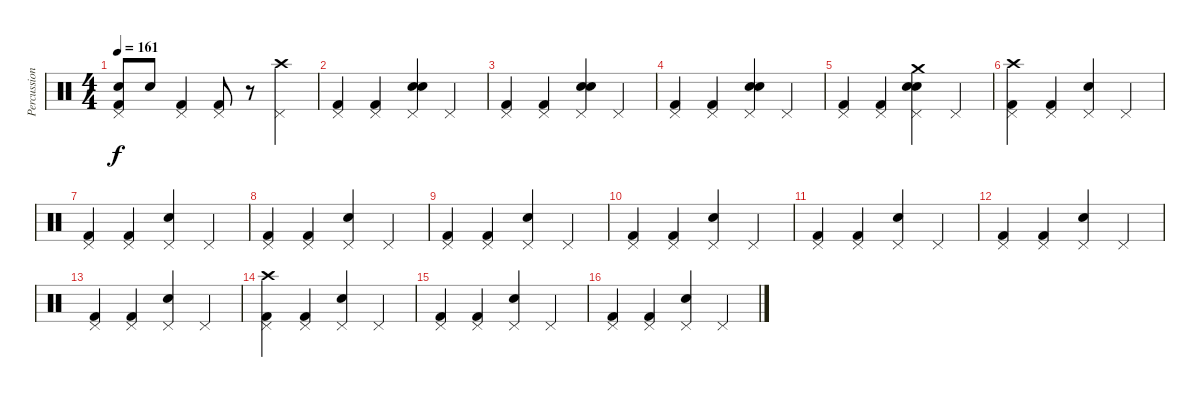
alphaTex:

\track ("Percussion" "Percussion") {instrument percussion}
\staff {score}
\articulation defaults
\ts (4 4)
\tempo 161
\clef neutral
\ks c
("Pedal Hi-Hat (hit)" "Electric Snare (hit)" "Kick (hit) 2").8{dy f} "Electric Snare (hit)".8 ("Pedal Hi-Hat (hit)" "Kick (hit) 2").4 ("Pedal Hi-Hat (hit)" "Kick (hit) 2").8 r.8 ("Pedal Hi-Hat (hit)" "Crash high (hit)").4 |
("Pedal Hi-Hat (hit)" "Kick (hit) 2").4 ("Pedal Hi-Hat (hit)" "Kick (hit) 2").4 ("Pedal Hi-Hat (hit)" "Electric Snare (hit)" "Hand Clap (hit)").4 "Pedal Hi-Hat (hit)".4 |
("Pedal Hi-Hat (hit)" "Kick (hit) 2").4 ("Pedal Hi-Hat (hit)" "Kick (hit) 2").4 ("Pedal Hi-Hat (hit)" "Electric Snare (hit)" "Hand Clap (hit)").4 "Pedal Hi-Hat (hit)".4 |
("Pedal Hi-Hat (hit)" "Kick (hit) 2").4 ("Pedal Hi-Hat (hit)" "Kick (hit) 2").4 ("Pedal Hi-Hat (hit)" "Electric Snare (hit)" "Hand Clap (hit)").4 "Pedal Hi-Hat (hit)".4 |
("Pedal Hi-Hat (hit)" "Kick (hit) 2").4 ("Pedal Hi-Hat (hit)" "Kick (hit) 2").4 ("Pedal Hi-Hat (hit)" "Crash medium (hit)" "Electric Snare (hit)" "Hand Clap (hit)").4 "Pedal Hi-Hat (hit)".4 |
("Crash high (hit)" "Pedal Hi-Hat (hit)" "Kick (hit) 2").4 ("Pedal Hi-Hat (hit)" "Kick (hit) 2").4 ("Pedal Hi-Hat (hit)" "Electric Snare (hit)").4 "Pedal Hi-Hat (hit)".4 |
("Pedal Hi-Hat (hit)" "Kick (hit) 2").4 ("Pedal Hi-Hat (hit)" "Kick (hit) 2").4 ("Pedal Hi-Hat (hit)" "Electric Snare (hit)").4 "Pedal Hi-Hat (hit)".4 |
("Pedal Hi-Hat (hit)" "Kick (hit) 2").4 ("Pedal Hi-Hat (hit)" "Kick (hit) 2").4 ("Pedal Hi-Hat (hit)" "Electric Snare (hit)").4 "Pedal Hi-Hat (hit)".4 |
("Pedal Hi-Hat (hit)" "Kick (hit) 2").4 ("Pedal Hi-Hat (hit)" "Kick (hit) 2").4 ("Pedal Hi-Hat (hit)" "Electric Snare (hit)").4 "Pedal Hi-Hat (hit)".4 |
("Pedal Hi-Hat (hit)" "Kick (hit) 2").4 ("Pedal Hi-Hat (hit)" "Kick (hit) 2").4 ("Pedal Hi-Hat (hit)" "Electric Snare (hit)").4 "Pedal Hi-Hat (hit)".4 |
("Pedal Hi-Hat (hit)" "Kick (hit) 2").4 ("Pedal Hi-Hat (hit)" "Kick (hit) 2").4 ("Pedal Hi-Hat (hit)" "Electric Snare (hit)").4 "Pedal Hi-Hat (hit)".4 |
("Pedal Hi-Hat (hit)" "Kick (hit) 2").4 ("Pedal Hi-Hat (hit)" "Kick (hit) 2").4 ("Pedal Hi-Hat (hit)" "Electric Snare (hit)").4 "Pedal Hi-Hat (hit)".4 |
("Pedal Hi-Hat (hit)" "Kick (hit) 2").4 ("Pedal Hi-Hat (hit)" "Kick (hit) 2").4 ("Pedal Hi-Hat (hit)" "Electric Snare (hit)").4 "Pedal Hi-Hat (hit)".4 |
("Crash high (hit)" "Pedal Hi-Hat (hit)" "Kick (hit) 2").4 ("Pedal Hi-Hat (hit)" "Kick (hit) 2").4 ("Pedal Hi-Hat (hit)" "Electric Snare (hit)").4 "Pedal Hi-Hat (hit)".4 |
("Pedal Hi-Hat (hit)" "Kick (hit) 2").4 ("Pedal Hi-Hat (hit)" "Kick (hit) 2").4 ("Pedal Hi-Hat (hit)" "Electric Snare (hit)").4 "Pedal Hi-Hat (hit)".4 |
("Pedal Hi-Hat (hit)" "Kick (hit) 2").4 ("Pedal Hi-Hat (hit)" "Kick (hit) 2").4 ("Pedal Hi-Hat (hit)" "Electric Snare (hit)").4 "Pedal Hi-Hat (hit)".4
